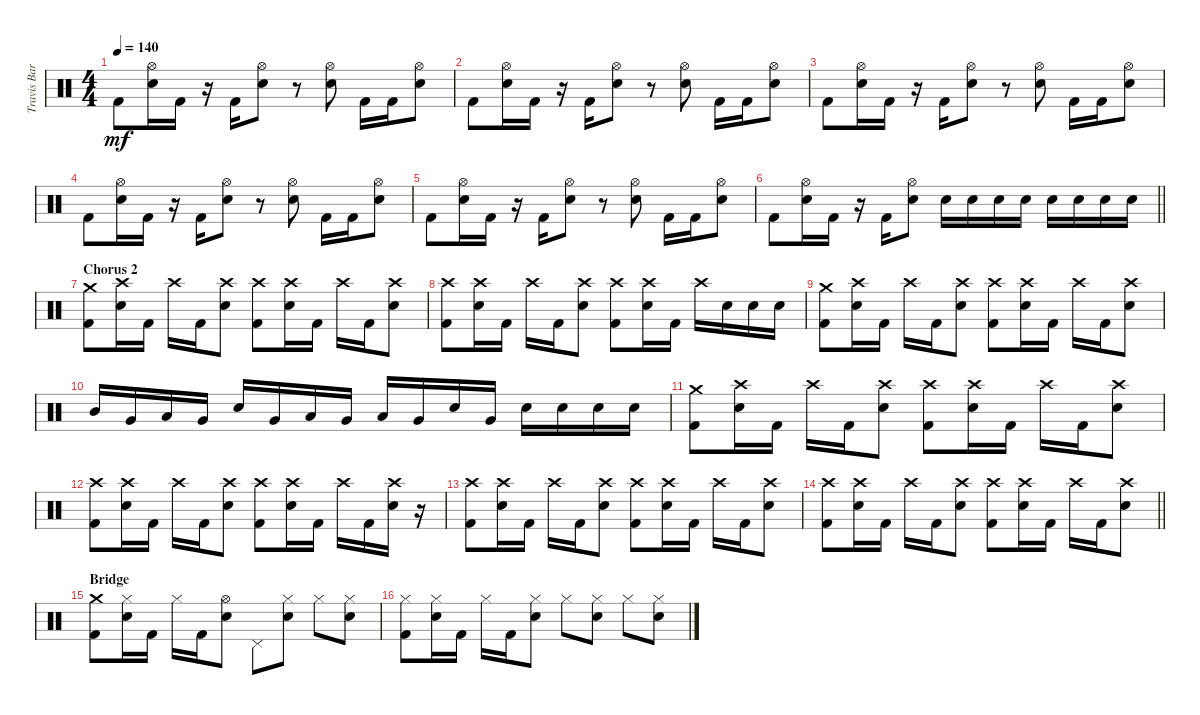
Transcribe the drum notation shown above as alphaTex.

\track ("Travis Barker" "Travis Bar") {instrument percussion}
\staff {score}
\articulation defaults
\ts (4 4)
\tempo 140
\clef neutral
\ks c "Kick (hit) 2".8{dy mf}
("Hi-Hat (open)" "Electric Snare (hit)").16 "Kick (hit) 2".16 r.16 "Kick (hit) 2".16 ("Hi-Hat (open)" "Electric Snare (hit)").8 r.8 ("Hi-Hat (open)" "Electric Snare (hit)").8 "Kick (hit) 2".16 "Kick (hit) 2".16 ("Hi-Hat (open)" "Electric Snare (hit)").8 |
"Kick (hit) 2".8 ("Hi-Hat (open)" "Electric Snare (hit)").16 "Kick (hit) 2".16 r.16 "Kick (hit) 2".16 ("Hi-Hat (open)" "Electric Snare (hit)").8 r.8 ("Hi-Hat (open)" "Electric Snare (hit)").8 "Kick (hit) 2".16 "Kick (hit) 2".16 ("Hi-Hat (open)" "Electric Snare (hit)").8 |
"Kick (hit) 2".8 ("Hi-Hat (open)" "Electric Snare (hit)").16 "Kick (hit) 2".16 r.16 "Kick (hit) 2".16 ("Hi-Hat (open)" "Electric Snare (hit)").8 r.8 ("Hi-Hat (open)" "Electric Snare (hit)").8 "Kick (hit) 2".16 "Kick (hit) 2".16 ("Hi-Hat (open)" "Electric Snare (hit)").8 |
"Kick (hit) 2".8 ("Hi-Hat (open)" "Electric Snare (hit)").16 "Kick (hit) 2".16 r.16 "Kick (hit) 2".16 ("Hi-Hat (open)" "Electric Snare (hit)").8 r.8 ("Hi-Hat (open)" "Electric Snare (hit)").8 "Kick (hit) 2".16 "Kick (hit) 2".16 ("Hi-Hat (open)" "Electric Snare (hit)").8 |
"Kick (hit) 2".8 ("Hi-Hat (open)" "Electric Snare (hit)").16 "Kick (hit) 2".16 r.16 "Kick (hit) 2".16 ("Hi-Hat (open)" "Electric Snare (hit)").8 r.8 ("Hi-Hat (open)" "Electric Snare (hit)").8 "Kick (hit) 2".16 "Kick (hit) 2".16 ("Hi-Hat (open)" "Electric Snare (hit)").8 |
\barLineRight lightlight "Kick (hit) 2".8
("Hi-Hat (open)" "Electric Snare (hit)").16 "Kick (hit) 2".16 r.16 "Kick (hit) 2".16 ("Hi-Hat (open)" "Electric Snare (hit)").8 "Electric Snare (hit)".16 "Electric Snare (hit)".16 "Electric Snare (hit)".16 "Electric Snare (hit)".16 "Electric Snare (hit)".16 "Electric Snare (hit)".16 "Electric Snare (hit)".16 "Electric Snare (hit)".16 |
\section ("" "Chorus 2")
("Crash medium (hit)" "Kick (hit) 2").8 ("Crash high (hit)" "Electric Snare (hit)").16 "Kick (hit) 2".16 "Crash high (hit)".16 "Kick (hit) 2".16 ("Crash high (hit)" "Electric Snare (hit)").8 ("Crash high (hit)" "Kick (hit) 2").8 ("Crash high (hit)" "Electric Snare (hit)").16 "Kick (hit) 2".16 "Crash high (hit)".16 "Kick (hit) 2".16 ("Crash high (hit)" "Electric Snare (hit)").8 |
("Crash high (hit)" "Kick (hit) 2").8 ("Crash high (hit)" "Electric Snare (hit)").16 "Kick (hit) 2".16 "Crash high (hit)".16 "Kick (hit) 2".16 ("Crash high (hit)" "Electric Snare (hit)").8 ("Crash high (hit)" "Kick (hit) 2").8 ("Crash high (hit)" "Electric Snare (hit)").16 "Kick (hit) 2".16 "Crash high (hit)".16 "Electric Snare (hit)".16 "Electric Snare (hit)".16 "Electric Snare (hit)".16 |
("Crash medium (hit)" "Kick (hit) 2").8 ("Crash high (hit)" "Electric Snare (hit)").16 "Kick (hit) 2".16 "Crash high (hit)".16 "Kick (hit) 2".16 ("Crash high (hit)" "Electric Snare (hit)").8 ("Crash high (hit)" "Kick (hit) 2").8 ("Crash high (hit)" "Electric Snare (hit)").16 "Kick (hit) 2".16 "Crash high (hit)".16 "Kick (hit) 2".16 ("Crash high (hit)" "Electric Snare (hit)").8 |
"Mid Tom (hit)".16 "Very Low Tom (hit)".16 "Low Tom (hit)".16 "Very Low Tom (hit)".16 "Electric Snare (hit)".16 "Very Low Tom (hit)".16 "Low Tom (hit)".16 "Very Low Tom (hit)".16 "Low Tom (hit)".16 "Very Low Tom (hit)".16 "Electric Snare (hit)".16 "Very Low Tom (hit)".16 "Electric Snare (hit)".16 "Electric Snare (hit)".16 "Electric Snare (hit)".16 "Electric Snare (hit)".16 |
("Crash medium (hit)" "Kick (hit) 2").8 ("Crash high (hit)" "Electric Snare (hit)").16 "Kick (hit) 2".16 "Crash high (hit)".16 "Kick (hit) 2".16 ("Crash high (hit)" "Electric Snare (hit)").8 ("Crash high (hit)" "Kick (hit) 2").8 ("Crash high (hit)" "Electric Snare (hit)").16 "Kick (hit) 2".16 "Crash high (hit)".16 "Kick (hit) 2".16 ("Crash high (hit)" "Electric Snare (hit)").8 |
("Crash high (hit)" "Kick (hit) 2").8 ("Crash high (hit)" "Electric Snare (hit)").16 "Kick (hit) 2".16 "Crash high (hit)".16 "Kick (hit) 2".16 ("Crash high (hit)" "Electric Snare (hit)").8 ("Crash high (hit)" "Kick (hit) 2").8 ("Crash high (hit)" "Electric Snare (hit)").16 "Kick (hit) 2".16 "Crash high (hit)".16 "Kick (hit) 2".16 ("Crash high (hit)" "Electric Snare (hit)").16 r.16 |
("Crash high (hit)" "Kick (hit) 2").8 ("Crash high (hit)" "Electric Snare (hit)").16 "Kick (hit) 2".16 "Crash high (hit)".16 "Kick (hit) 2".16 ("Crash high (hit)" "Electric Snare (hit)").8 ("Crash high (hit)" "Kick (hit) 2").8 ("Crash high (hit)" "Electric Snare (hit)").16 "Kick (hit) 2".16 "Crash high (hit)".16 "Kick (hit) 2".16 ("Crash high (hit)" "Electric Snare (hit)").8 |
\barLineRight lightlight
("Crash high (hit)" "Kick (hit) 2").8 ("Crash high (hit)" "Electric Snare (hit)").16 "Kick (hit) 2".16 "Crash high (hit)".16 "Kick (hit) 2".16 ("Crash high (hit)" "Electric Snare (hit)").8 ("Crash high (hit)" "Kick (hit) 2").8 ("Crash high (hit)" "Electric Snare (hit)").16 "Kick (hit) 2".16 "Crash high (hit)".16 "Kick (hit) 2".16 ("Crash high (hit)" "Electric Snare (hit)").8 |
\section ("" "Bridge")
("Crash medium (hit)" "Kick (hit) 2").8 ("Hi-Hat (closed)" "Electric Snare (hit)").16 "Kick (hit) 2".16 "Hi-Hat (closed)".16 "Kick (hit) 2".16 ("Hi-Hat (open)" "Electric Snare (hit)").8 "Pedal Hi-Hat (hit)".8 ("Hi-Hat (closed)" "Electric Snare (hit)").8 "Hi-Hat (closed)".8 ("Hi-Hat (closed)" "Electric Snare (hit)").8 |
("Hi-Hat (closed)" "Kick (hit) 2").8 ("Hi-Hat (closed)" "Electric Snare (hit)").16 "Kick (hit) 2".16 "Hi-Hat (closed)".16 "Kick (hit) 2".16 ("Hi-Hat (closed)" "Electric Snare (hit)").8 "Hi-Hat (closed)".8 ("Hi-Hat (closed)" "Electric Snare (hit)").8 "Hi-Hat (closed)".8 ("Hi-Hat (closed)" "Electric Snare (hit)").8
